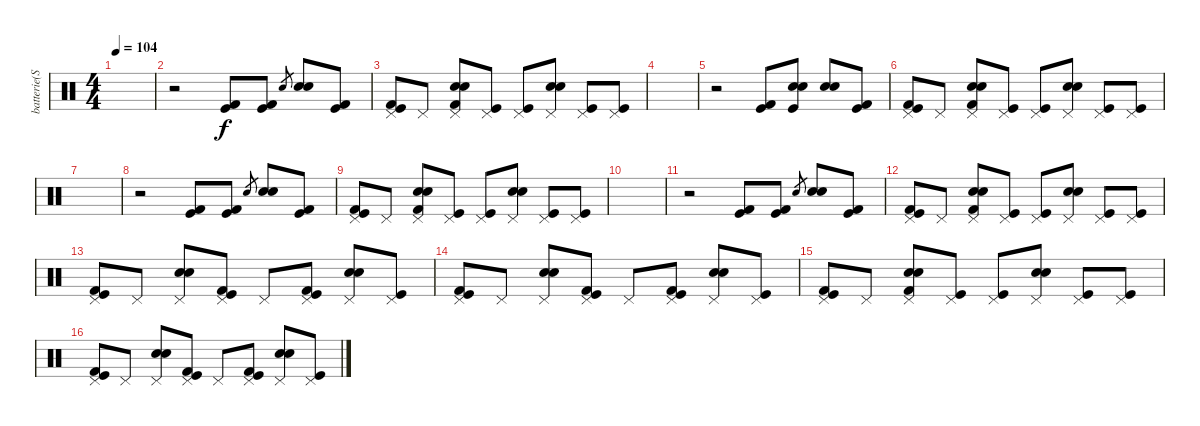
\track ("batterie(Schemel)" "batterie(S") {instrument percussion}
\staff {score}
\articulation defaults
\ts (4 4)
\tempo 104
\clef neutral
\ks c
|
r.2 ("Kick (hit) 2" "Kick (hit)").8 ("Kick (hit) 2" "Kick (hit)").8 "Electric Snare (hit)"{sl}.8{gr} ("Electric Snare (hit)" "Snare (hit) 2").8 ("Kick (hit)" "Kick (hit) 2").8 |
("Pedal Hi-Hat (hit)" "Kick (hit) 2" "Kick (hit)").8 "Pedal Hi-Hat (hit)".8 ("Pedal Hi-Hat (hit)" "Electric Snare (hit)" "Snare (hit) 2" "Kick (hit) 2").8 ("Pedal Hi-Hat (hit)" "Kick (hit)").8 ("Pedal Hi-Hat (hit)" "Kick (hit)").8 ("Pedal Hi-Hat (hit)" "Electric Snare (hit)" "Snare (hit) 2").8 ("Pedal Hi-Hat (hit)" "Kick (hit)").8 ("Pedal Hi-Hat (hit)" "Kick (hit)").8 |
|
r.2 ("Kick (hit)" "Kick (hit) 2").8 ("Electric Snare (hit)" "Snare (hit) 2" "Kick (hit)").8 ("Electric Snare (hit)" "Snare (hit) 2").8 ("Kick (hit)" "Kick (hit) 2").8 |
("Pedal Hi-Hat (hit)" "Kick (hit) 2" "Kick (hit)").8 "Pedal Hi-Hat (hit)".8 ("Pedal Hi-Hat (hit)" "Electric Snare (hit)" "Snare (hit) 2" "Kick (hit) 2").8 ("Pedal Hi-Hat (hit)" "Kick (hit)").8 ("Pedal Hi-Hat (hit)" "Kick (hit)").8 ("Pedal Hi-Hat (hit)" "Electric Snare (hit)" "Snare (hit) 2").8 ("Pedal Hi-Hat (hit)" "Kick (hit)").8 ("Pedal Hi-Hat (hit)" "Kick (hit)").8 |
|
r.2 ("Kick (hit) 2" "Kick (hit)").8 ("Kick (hit) 2" "Kick (hit)").8 "Electric Snare (hit)"{sl}.8{gr} ("Electric Snare (hit)" "Snare (hit) 2").8 ("Kick (hit)" "Kick (hit) 2").8 |
("Pedal Hi-Hat (hit)" "Kick (hit) 2" "Kick (hit)").8 "Pedal Hi-Hat (hit)".8 ("Pedal Hi-Hat (hit)" "Electric Snare (hit)" "Snare (hit) 2" "Kick (hit) 2").8 ("Pedal Hi-Hat (hit)" "Kick (hit)").8 ("Pedal Hi-Hat (hit)" "Kick (hit)").8 ("Pedal Hi-Hat (hit)" "Electric Snare (hit)" "Snare (hit) 2").8 ("Pedal Hi-Hat (hit)" "Kick (hit)").8 ("Pedal Hi-Hat (hit)" "Kick (hit)").8 |
|
r.2 ("Kick (hit) 2" "Kick (hit)").8 ("Kick (hit) 2" "Kick (hit)").8 "Electric Snare (hit)"{sl}.8{gr} ("Electric Snare (hit)" "Snare (hit) 2").8 ("Kick (hit)" "Kick (hit) 2").8 |
("Pedal Hi-Hat (hit)" "Kick (hit) 2" "Kick (hit)").8 "Pedal Hi-Hat (hit)".8 ("Pedal Hi-Hat (hit)" "Electric Snare (hit)" "Snare (hit) 2" "Kick (hit) 2").8 ("Pedal Hi-Hat (hit)" "Kick (hit)").8 ("Pedal Hi-Hat (hit)" "Kick (hit)").8 ("Pedal Hi-Hat (hit)" "Electric Snare (hit)" "Snare (hit) 2").8 ("Pedal Hi-Hat (hit)" "Kick (hit)").8 ("Pedal Hi-Hat (hit)" "Kick (hit)").8 |
("Pedal Hi-Hat (hit)" "Kick (hit) 2" "Kick (hit)").8 "Pedal Hi-Hat (hit)".8 ("Pedal Hi-Hat (hit)" "Electric Snare (hit)" "Snare (hit) 2").8 ("Pedal Hi-Hat (hit)" "Kick (hit) 2" "Kick (hit)").8 "Pedal Hi-Hat (hit)".8 ("Pedal Hi-Hat (hit)" "Kick (hit) 2" "Kick (hit)").8 ("Pedal Hi-Hat (hit)" "Electric Snare (hit)" "Snare (hit) 2").8 ("Pedal Hi-Hat (hit)" "Kick (hit)").8 |
("Pedal Hi-Hat (hit)" "Kick (hit) 2" "Kick (hit)").8 "Pedal Hi-Hat (hit)".8 ("Pedal Hi-Hat (hit)" "Electric Snare (hit)" "Snare (hit) 2").8 ("Pedal Hi-Hat (hit)" "Kick (hit) 2" "Kick (hit)").8 "Pedal Hi-Hat (hit)".8 ("Pedal Hi-Hat (hit)" "Kick (hit) 2" "Kick (hit)").8 ("Pedal Hi-Hat (hit)" "Electric Snare (hit)" "Snare (hit) 2").8 ("Pedal Hi-Hat (hit)" "Kick (hit)").8 |
("Pedal Hi-Hat (hit)" "Kick (hit) 2" "Kick (hit)").8 "Pedal Hi-Hat (hit)".8 ("Pedal Hi-Hat (hit)" "Electric Snare (hit)" "Snare (hit) 2" "Kick (hit) 2").8 ("Pedal Hi-Hat (hit)" "Kick (hit)").8 ("Pedal Hi-Hat (hit)" "Kick (hit)").8 ("Pedal Hi-Hat (hit)" "Electric Snare (hit)" "Snare (hit) 2").8 ("Pedal Hi-Hat (hit)" "Kick (hit)").8 ("Pedal Hi-Hat (hit)" "Kick (hit)").8 |
("Pedal Hi-Hat (hit)" "Kick (hit) 2" "Kick (hit)").8 "Pedal Hi-Hat (hit)".8 ("Pedal Hi-Hat (hit)" "Electric Snare (hit)" "Snare (hit) 2").8 ("Pedal Hi-Hat (hit)" "Kick (hit) 2" "Kick (hit)").8 "Pedal Hi-Hat (hit)".8 ("Pedal Hi-Hat (hit)" "Kick (hit) 2" "Kick (hit)").8 ("Pedal Hi-Hat (hit)" "Electric Snare (hit)" "Snare (hit) 2").8 ("Pedal Hi-Hat (hit)" "Kick (hit)").8
